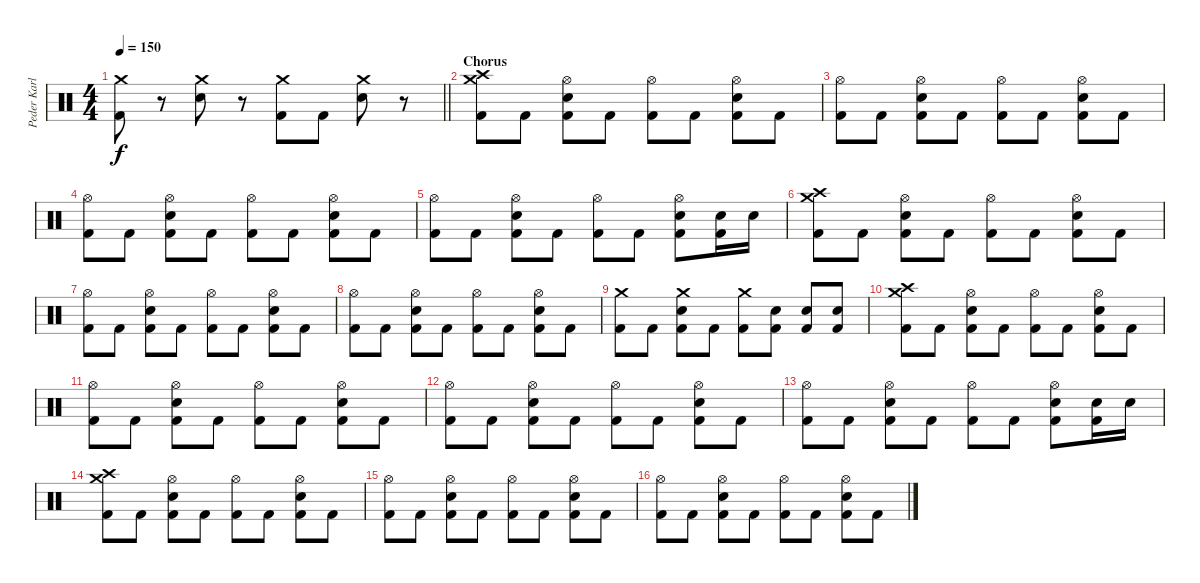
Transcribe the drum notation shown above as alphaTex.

\track ("Peder Karlsson" "Peder Karl") {instrument percussion}
\staff {score}
\articulation defaults
\ts (4 4)
\tempo 150
\clef neutral
\barLineRight lightlight
\ks c
("Crash medium (hit)" "Kick (hit) 2").8{dy f} r.8 ("Crash medium (hit)" "Snare (hit) 2").8 r.8 ("Crash medium (hit)" "Kick (hit) 2").8 "Kick (hit) 2".8 ("Crash medium (hit)" "Snare (hit) 2").8 r.8 |
\section ("" "Chorus")
("Crash medium (hit)" "Crash high (hit)" "Kick (hit) 2").8 "Kick (hit) 2".8 ("Hi-Hat (open)" "Snare (hit) 2" "Kick (hit) 2").8 "Kick (hit) 2".8 ("Hi-Hat (open)" "Kick (hit) 2").8 "Kick (hit) 2".8 ("Hi-Hat (open)" "Snare (hit) 2" "Kick (hit) 2").8 "Kick (hit) 2".8 |
("Hi-Hat (open)" "Kick (hit) 2").8 "Kick (hit) 2".8 ("Hi-Hat (open)" "Snare (hit) 2" "Kick (hit) 2").8 "Kick (hit) 2".8 ("Hi-Hat (open)" "Kick (hit) 2").8 "Kick (hit) 2".8 ("Hi-Hat (open)" "Snare (hit) 2" "Kick (hit) 2").8 "Kick (hit) 2".8 |
("Hi-Hat (open)" "Kick (hit) 2").8 "Kick (hit) 2".8 ("Hi-Hat (open)" "Snare (hit) 2" "Kick (hit) 2").8 "Kick (hit) 2".8 ("Hi-Hat (open)" "Kick (hit) 2").8 "Kick (hit) 2".8 ("Hi-Hat (open)" "Snare (hit) 2" "Kick (hit) 2").8 "Kick (hit) 2".8 |
("Hi-Hat (open)" "Kick (hit) 2").8 "Kick (hit) 2".8 ("Hi-Hat (open)" "Snare (hit) 2" "Kick (hit) 2").8 "Kick (hit) 2".8 ("Hi-Hat (open)" "Kick (hit) 2").8 "Kick (hit) 2".8 ("Hi-Hat (open)" "Snare (hit) 2" "Kick (hit) 2").8 ("Snare (hit) 2" "Kick (hit) 2").16 "Snare (hit) 2".16 |
("Crash medium (hit)" "Crash high (hit)" "Kick (hit) 2").8 "Kick (hit) 2".8 ("Hi-Hat (open)" "Snare (hit) 2" "Kick (hit) 2").8 "Kick (hit) 2".8 ("Hi-Hat (open)" "Kick (hit) 2").8 "Kick (hit) 2".8 ("Hi-Hat (open)" "Snare (hit) 2" "Kick (hit) 2").8 "Kick (hit) 2".8 |
("Hi-Hat (open)" "Kick (hit) 2").8 "Kick (hit) 2".8 ("Hi-Hat (open)" "Snare (hit) 2" "Kick (hit) 2").8 "Kick (hit) 2".8 ("Hi-Hat (open)" "Kick (hit) 2").8 "Kick (hit) 2".8 ("Hi-Hat (open)" "Snare (hit) 2" "Kick (hit) 2").8 "Kick (hit) 2".8 |
("Hi-Hat (open)" "Kick (hit) 2").8 "Kick (hit) 2".8 ("Hi-Hat (open)" "Snare (hit) 2" "Kick (hit) 2").8 "Kick (hit) 2".8 ("Hi-Hat (open)" "Kick (hit) 2").8 "Kick (hit) 2".8 ("Hi-Hat (open)" "Snare (hit) 2" "Kick (hit) 2").8 "Kick (hit) 2".8 |
("Crash medium (hit)" "Kick (hit) 2").8 "Kick (hit) 2".8 ("Crash medium (hit)" "Snare (hit) 2" "Kick (hit) 2").8 "Kick (hit) 2".8 ("Crash medium (hit)" "Kick (hit) 2").8 ("Snare (hit) 2" "Kick (hit) 2").8 ("Snare (hit) 2" "Kick (hit) 2").8 ("Snare (hit) 2" "Kick (hit) 2").8 |
("Crash medium (hit)" "Crash high (hit)" "Kick (hit) 2").8 "Kick (hit) 2".8 ("Hi-Hat (open)" "Snare (hit) 2" "Kick (hit) 2").8 "Kick (hit) 2".8 ("Hi-Hat (open)" "Kick (hit) 2").8 "Kick (hit) 2".8 ("Hi-Hat (open)" "Snare (hit) 2" "Kick (hit) 2").8 "Kick (hit) 2".8 |
("Hi-Hat (open)" "Kick (hit) 2").8 "Kick (hit) 2".8 ("Hi-Hat (open)" "Snare (hit) 2" "Kick (hit) 2").8 "Kick (hit) 2".8 ("Hi-Hat (open)" "Kick (hit) 2").8 "Kick (hit) 2".8 ("Hi-Hat (open)" "Snare (hit) 2" "Kick (hit) 2").8 "Kick (hit) 2".8 |
("Hi-Hat (open)" "Kick (hit) 2").8 "Kick (hit) 2".8 ("Hi-Hat (open)" "Snare (hit) 2" "Kick (hit) 2").8 "Kick (hit) 2".8 ("Hi-Hat (open)" "Kick (hit) 2").8 "Kick (hit) 2".8 ("Hi-Hat (open)" "Snare (hit) 2" "Kick (hit) 2").8 "Kick (hit) 2".8 |
("Hi-Hat (open)" "Kick (hit) 2").8 "Kick (hit) 2".8 ("Hi-Hat (open)" "Snare (hit) 2" "Kick (hit) 2").8 "Kick (hit) 2".8 ("Hi-Hat (open)" "Kick (hit) 2").8 "Kick (hit) 2".8 ("Hi-Hat (open)" "Snare (hit) 2" "Kick (hit) 2").8 ("Snare (hit) 2" "Kick (hit) 2").16 "Snare (hit) 2".16 |
("Crash medium (hit)" "Crash high (hit)" "Kick (hit) 2").8 "Kick (hit) 2".8 ("Hi-Hat (open)" "Snare (hit) 2" "Kick (hit) 2").8 "Kick (hit) 2".8 ("Hi-Hat (open)" "Kick (hit) 2").8 "Kick (hit) 2".8 ("Hi-Hat (open)" "Snare (hit) 2" "Kick (hit) 2").8 "Kick (hit) 2".8 |
("Hi-Hat (open)" "Kick (hit) 2").8 "Kick (hit) 2".8 ("Hi-Hat (open)" "Snare (hit) 2" "Kick (hit) 2").8 "Kick (hit) 2".8 ("Hi-Hat (open)" "Kick (hit) 2").8 "Kick (hit) 2".8 ("Hi-Hat (open)" "Snare (hit) 2" "Kick (hit) 2").8 "Kick (hit) 2".8 |
("Hi-Hat (open)" "Kick (hit) 2").8 "Kick (hit) 2".8 ("Hi-Hat (open)" "Snare (hit) 2" "Kick (hit) 2").8 "Kick (hit) 2".8 ("Hi-Hat (open)" "Kick (hit) 2").8 "Kick (hit) 2".8 ("Hi-Hat (open)" "Snare (hit) 2" "Kick (hit) 2").8 "Kick (hit) 2".8
